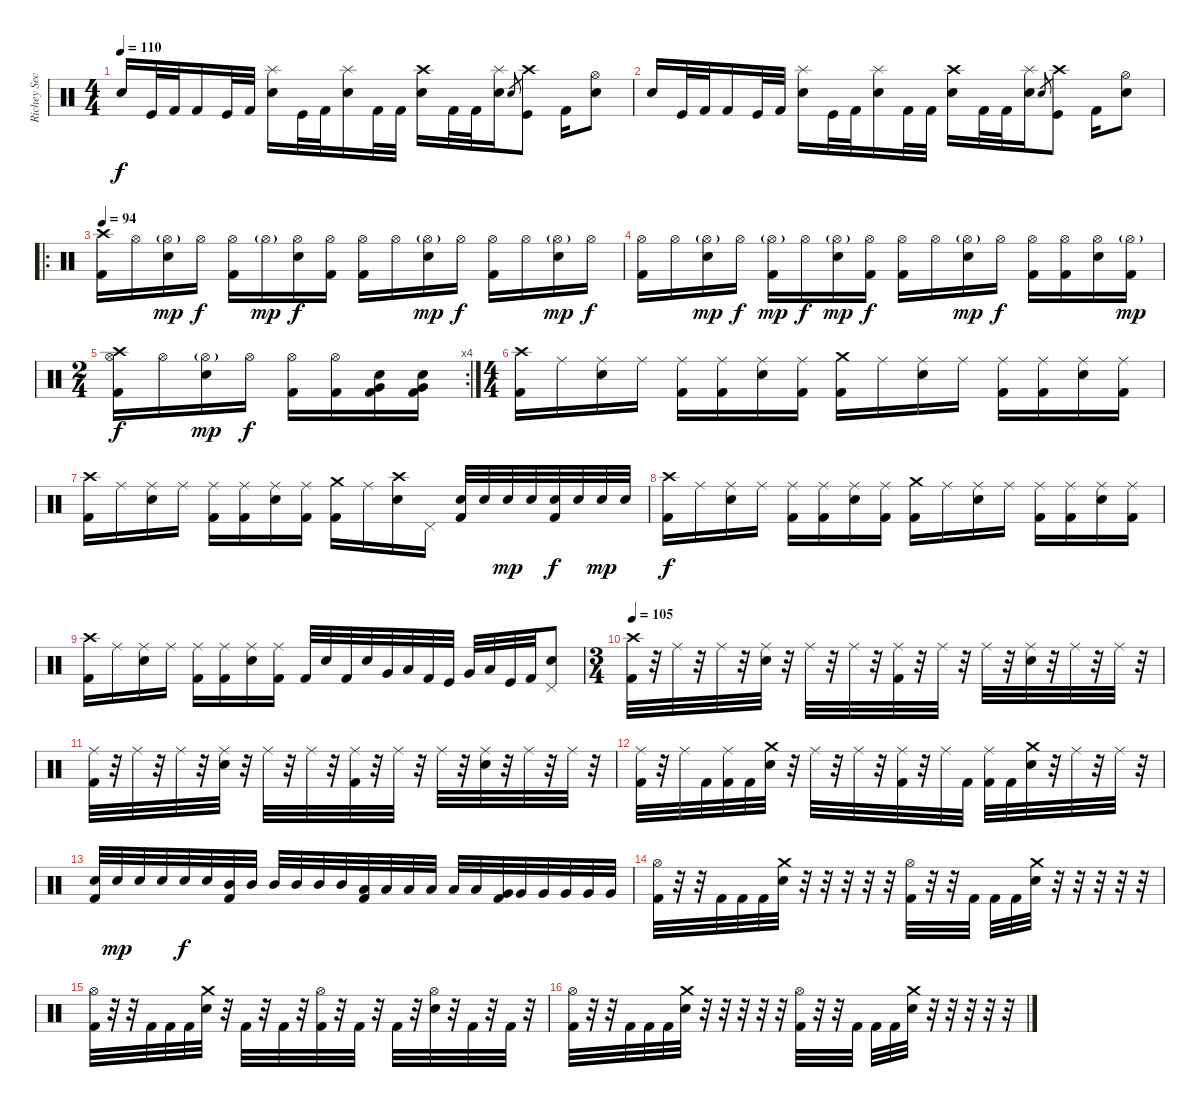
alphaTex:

\track ("Richey Secchiri" "Richey Sec") {instrument percussion}
\staff {score}
\articulation defaults
\ts (4 4)
\tempo 110
\clef neutral
\ks c "Snare (hit) 2".16{dy f} "Kick (hit)".32 "Kick (hit) 2".32 "Kick (hit) 2".16 "Kick (hit)".32 "Kick (hit) 2".32
("Splash (hit)" "Snare (hit) 2").16 "Kick (hit)".32 "Kick (hit) 2".32 ("Splash (hit)" "Snare (hit) 2").16 "Kick (hit) 2".32 "Kick (hit) 2".32 ("Crash high (hit)" "Snare (hit) 2").16 "Kick (hit) 2".32 "Kick (hit) 2".32 ("Splash (hit)" "Snare (hit) 2").16 "Snare (hit) 2".8{gr} ("Crash high (hit)" "Kick (hit)").8 "Kick (hit) 2".16 ("Hi-Hat (open)" "Snare (hit) 2").8 |
"Snare (hit) 2".16 "Kick (hit)".32 "Kick (hit) 2".32 "Kick (hit) 2".16 "Kick (hit)".32 "Kick (hit) 2".32 ("Splash (hit)" "Snare (hit) 2").16 "Kick (hit)".32 "Kick (hit) 2".32 ("Splash (hit)" "Snare (hit) 2").16 "Kick (hit) 2".32 "Kick (hit) 2".32 ("Crash high (hit)" "Snare (hit) 2").16 "Kick (hit) 2".32 "Kick (hit) 2".32 ("Splash (hit)" "Snare (hit) 2").16 "Snare (hit) 2".8{gr} ("Crash high (hit)" "Kick (hit)").8 "Kick (hit) 2".16 ("Hi-Hat (open)" "Snare (hit) 2").8 |
\ro
\tempo 94
("Crash high (hit)" "Kick (hit) 2").16 "Hi-Hat (open)".16 ("Hi-Hat (open)"{g} "Snare (hit) 2").16{dy mp} "Hi-Hat (open)".16{dy f} ("Hi-Hat (open)" "Kick (hit) 2").16 "Hi-Hat (open)"{g}.16{dy mp} ("Hi-Hat (open)" "Snare (hit) 2").16{dy f} ("Hi-Hat (open)" "Kick (hit) 2").16 ("Hi-Hat (open)" "Kick (hit) 2").16 "Hi-Hat (open)".16 ("Hi-Hat (open)"{g} "Snare (hit) 2").16{dy mp} "Hi-Hat (open)".16{dy f} ("Hi-Hat (open)" "Kick (hit) 2").16 "Hi-Hat (open)".16 ("Hi-Hat (open)"{g} "Snare (hit) 2").16{dy mp} "Hi-Hat (open)".16{dy f} |
("Hi-Hat (open)" "Kick (hit) 2").16 "Hi-Hat (open)".16 ("Hi-Hat (open)"{g} "Snare (hit) 2").16{dy mp} "Hi-Hat (open)".16{dy f} ("Hi-Hat (open)"{g} "Kick (hit) 2").16{dy mp} "Hi-Hat (open)".16{dy f} ("Hi-Hat (open)"{g} "Snare (hit) 2").16{dy mp} ("Hi-Hat (open)" "Kick (hit) 2").16{dy f} ("Hi-Hat (open)" "Kick (hit) 2").16 "Hi-Hat (open)".16 ("Hi-Hat (open)"{g} "Snare (hit) 2").16{dy mp} "Hi-Hat (open)".16{dy f} ("Hi-Hat (open)" "Kick (hit) 2").16 ("Hi-Hat (open)" "Kick (hit) 2").16 ("Hi-Hat (open)" "Snare (hit) 2").16 ("Hi-Hat (open)"{g} "Kick (hit) 2").16{dy mp} |
\rc 4
\ts (2 4)
("Crash high (hit)" "Hi-Hat (open)" "Kick (hit) 2").16{dy f} "Hi-Hat (open)".16 ("Hi-Hat (open)"{g} "Snare (hit) 2").16{dy mp} "Hi-Hat (open)".16{dy f} ("Hi-Hat (open)" "Kick (hit) 2").16 ("Hi-Hat (open)" "Kick (hit) 2").16 ("Snare (hit) 2" "Very Low Tom (hit)" "Kick (hit) 2").16 ("Snare (hit) 2" "Very Low Tom (hit)" "Kick (hit) 2").16 |
\ts (4 4)
("Crash high (hit)" "Kick (hit) 2").16 "Ride (middle)".16 ("Ride (middle)" "Snare (hit) 2").16 "Ride (middle)".16 ("Ride (middle)" "Kick (hit) 2").16 ("Ride (middle)" "Kick (hit) 2").16 ("Ride (middle)" "Snare (hit) 2").16 ("Ride (middle)" "Kick (hit) 2").16 ("Crash medium (hit)" "Kick (hit) 2").16 "Ride (middle)".16 ("Ride (middle)" "Snare (hit) 2").16 "Ride (middle)".16 ("Ride (middle)" "Kick (hit) 2").16 ("Ride (middle)" "Kick (hit) 2").16 ("Ride (middle)" "Snare (hit) 2").16 ("Ride (middle)" "Kick (hit) 2").16 |
("Crash high (hit)" "Kick (hit) 2").16 "Ride (middle)".16 ("Ride (middle)" "Snare (hit) 2").16 "Ride (middle)".16 ("Ride (middle)" "Kick (hit) 2").16 ("Ride (middle)" "Kick (hit) 2").16 ("Ride (middle)" "Snare (hit) 2").16 ("Ride (middle)" "Kick (hit) 2").16 ("Crash medium (hit)" "Kick (hit) 2").16 "Ride (middle)".16 ("Crash high (hit)" "Snare (hit) 2").16 "Pedal Hi-Hat (hit)".16 ("Snare (hit) 2" "Kick (hit) 2").32 "Snare (hit) 2".32 "Snare (hit) 2".32{dy mp} "Snare (hit) 2".32 ("Snare (hit) 2" "Kick (hit) 2").32{dy f} "Snare (hit) 2".32 "Snare (hit) 2".32{dy mp} "Snare (hit) 2".32 |
("Crash high (hit)" "Kick (hit) 2").16{dy f} "Ride (middle)".16 ("Ride (middle)" "Snare (hit) 2").16 "Ride (middle)".16 ("Ride (middle)" "Kick (hit) 2").16 ("Ride (middle)" "Kick (hit) 2").16 ("Ride (middle)" "Snare (hit) 2").16 ("Ride (middle)" "Kick (hit) 2").16 ("Crash medium (hit)" "Kick (hit) 2").16 "Ride (middle)".16 ("Ride (middle)" "Snare (hit) 2").16 "Ride (middle)".16 ("Ride (middle)" "Kick (hit) 2").16 ("Ride (middle)" "Kick (hit) 2").16 ("Ride (middle)" "Snare (hit) 2").16 ("Ride (middle)" "Kick (hit) 2").16 |
("Crash high (hit)" "Kick (hit) 2").16 "Ride (middle)".16 ("Ride (middle)" "Snare (hit) 2").16 "Ride (middle)".16 ("Ride (middle)" "Kick (hit) 2").16 ("Ride (middle)" "Kick (hit) 2").16 ("Ride (middle)" "Snare (hit) 2").16 ("Ride (middle)" "Kick (hit) 2").16 "Kick (hit) 2".32 "Snare (hit) 2".32 "Kick (hit) 2".32 "Snare (hit) 2".32 "Very Low Tom (hit)".32 "Low Tom (hit)".32 "Kick (hit) 2".32 "Kick (hit)".32 "Very Low Tom (hit)".32 "Low Floor Tom (hit)".32 "Kick (hit)".32 "Kick (hit) 2".32 ("Pedal Hi-Hat (hit)" "Snare (hit) 2").8 |
\ts (3 4)
\tempo 105
("Crash high (hit)" "Kick (hit) 2").32 r.32 "Ride (middle)".32 r.32 "Ride (middle)".32 r.32 ("Ride (middle)" "Snare (hit) 2").32 r.32 "Ride (middle)".32 r.32 "Ride (middle)".32 r.32 ("Ride (middle)" "Kick (hit) 2").32 r.32 "Ride (middle)".32 r.32 "Ride (middle)".32 r.32 ("Ride (middle)" "Snare (hit) 2").32 r.32 "Ride (middle)".32 r.32 "Ride (middle)".32 r.32 |
("Ride (middle)" "Kick (hit) 2").32 r.32 "Ride (middle)".32 r.32 "Ride (middle)".32 r.32 ("Ride (middle)" "Snare (hit) 2").32 r.32 "Ride (middle)".32 r.32 "Ride (middle)".32 r.32 ("Ride (middle)" "Kick (hit) 2").32 r.32 "Ride (middle)".32 r.32 "Ride (middle)".32 r.32 ("Ride (middle)" "Snare (hit) 2").32 r.32 "Ride (middle)".32 r.32 "Ride (middle)".32 r.32 |
("Ride (middle)" "Kick (hit) 2").32 r.32 "Ride (middle)".32 "Kick (hit) 2".32 ("Ride (middle)" "Kick (hit) 2").32 "Kick (hit) 2".32 ("Crash medium (hit)" "Snare (hit) 2").32 r.32 "Ride (middle)".32 r.32 "Ride (middle)".32 r.32 ("Ride (middle)" "Kick (hit) 2").32 r.32 "Ride (middle)".32 "Kick (hit) 2".32 ("Ride (middle)" "Kick (hit) 2").32 "Kick (hit) 2".32 ("Crash medium (hit)" "Snare (hit) 2").32 r.32 "Ride (middle)".32 r.32 "Ride (middle)".32 r.32 |
("Snare (hit) 2" "Kick (hit) 2").32 "Snare (hit) 2".32{dy mp} "Snare (hit) 2".32 "Snare (hit) 2".32 "Snare (hit) 2".32{dy f} "Snare (hit) 2".32 ("Mid Tom (hit)" "Kick (hit) 2").32 "Mid Tom (hit)".32 "Mid Tom (hit)".32 "Mid Tom (hit)".32 "Mid Tom (hit)".32 "Mid Tom (hit)".32 ("Low Tom (hit)" "Kick (hit) 2").32 "Low Tom (hit)".32 "Low Tom (hit)".32 "Low Tom (hit)".32 "Low Tom (hit)".32 "Low Tom (hit)".32 ("Very Low Tom (hit)" "Kick (hit) 2").32 "Very Low Tom (hit)".32 "Very Low Tom (hit)".32 "Very Low Tom (hit)".32 "Very Low Tom (hit)".32 "Very Low Tom (hit)".32 |
("Hi-Hat (open)" "Kick (hit) 2").32 r.32 r.32 "Kick (hit) 2".32 "Kick (hit) 2".32 "Kick (hit) 2".32 ("Crash medium (hit)" "Snare (hit) 2").32 r.32 r.32 r.32 r.32 r.32 ("Hi-Hat (open)" "Kick (hit) 2").32 r.32 r.32 "Kick (hit) 2".32 "Kick (hit) 2".32 "Kick (hit) 2".32 ("Crash medium (hit)" "Snare (hit) 2").32 r.32 r.32 r.32 r.32 r.32 |
("Hi-Hat (open)" "Kick (hit) 2").32 r.32 r.32 "Kick (hit) 2".32 "Kick (hit) 2".32 "Kick (hit) 2".32 ("Crash medium (hit)" "Snare (hit) 2").32 r.32 "Kick (hit) 2".32 r.32 "Kick (hit) 2".32 r.32 ("Hi-Hat (open)" "Kick (hit) 2").32 r.32 "Kick (hit) 2".32 r.32 "Kick (hit) 2".32 r.32 ("Hi-Hat (open)" "Snare (hit) 2").32 r.32 "Kick (hit) 2".32 r.32 "Kick (hit) 2".32 r.32 |
("Hi-Hat (open)" "Kick (hit) 2").32 r.32 r.32 "Kick (hit) 2".32 "Kick (hit) 2".32 "Kick (hit) 2".32 ("Crash medium (hit)" "Snare (hit) 2").32 r.32 r.32 r.32 r.32 r.32 ("Hi-Hat (open)" "Kick (hit) 2").32 r.32 r.32 "Kick (hit) 2".32 "Kick (hit) 2".32 "Kick (hit) 2".32 ("Crash medium (hit)" "Snare (hit) 2").32 r.32 r.32 r.32 r.32 r.32
